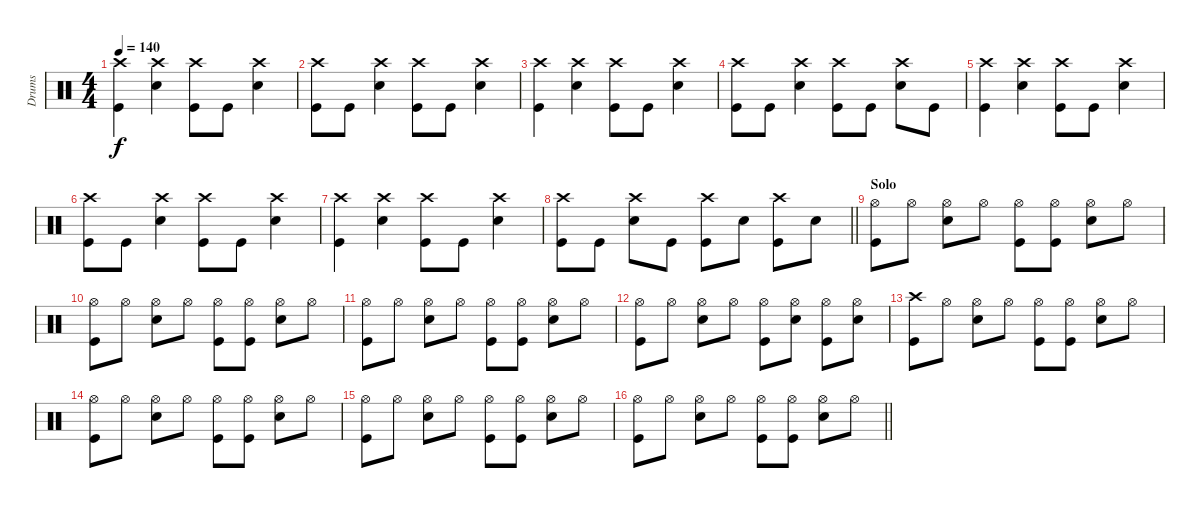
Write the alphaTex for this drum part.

\track ("Drums" "Drums") {instrument percussion}
\staff {score}
\articulation defaults
\ts (4 4)
\tempo 140
\clef neutral
\ks c
("Crash high (hit)" "Kick (hit)").4{dy f} ("Crash high (hit)" "Snare (hit) 2").4 ("Crash high (hit)" "Kick (hit)").8 "Kick (hit)".8 ("Crash high (hit)" "Snare (hit) 2").4 |
("Crash high (hit)" "Kick (hit)").8 "Kick (hit)".8 ("Crash high (hit)" "Snare (hit) 2").4 ("Crash high (hit)" "Kick (hit)").8 "Kick (hit)".8 ("Crash high (hit)" "Snare (hit) 2").4 |
("Crash high (hit)" "Kick (hit)").4 ("Crash high (hit)" "Snare (hit) 2").4 ("Crash high (hit)" "Kick (hit)").8 "Kick (hit)".8 ("Crash high (hit)" "Snare (hit) 2").4 |
("Crash high (hit)" "Kick (hit)").8 "Kick (hit)".8 ("Crash high (hit)" "Snare (hit) 2").4 ("Crash high (hit)" "Kick (hit)").8 "Kick (hit)".8 ("Crash high (hit)" "Snare (hit) 2").8 "Kick (hit)".8 |
("Crash high (hit)" "Kick (hit)").4 ("Crash high (hit)" "Snare (hit) 2").4 ("Crash high (hit)" "Kick (hit)").8 "Kick (hit)".8 ("Crash high (hit)" "Snare (hit) 2").4 |
("Crash high (hit)" "Kick (hit)").8 "Kick (hit)".8 ("Crash high (hit)" "Snare (hit) 2").4 ("Crash high (hit)" "Kick (hit)").8 "Kick (hit)".8 ("Crash high (hit)" "Snare (hit) 2").4 |
("Crash high (hit)" "Kick (hit)").4 ("Crash high (hit)" "Snare (hit) 2").4 ("Crash high (hit)" "Kick (hit)").8 "Kick (hit)".8 ("Crash high (hit)" "Snare (hit) 2").4 |
\barLineRight lightlight
("Crash high (hit)" "Kick (hit)").8 "Kick (hit)".8 ("Crash high (hit)" "Snare (hit) 2").8 "Kick (hit)".8 ("Crash high (hit)" "Kick (hit)").8 "Snare (hit) 2".8 ("Crash high (hit)" "Kick (hit)").8 "Snare (hit) 2".8 |
\section ("" "Solo")
("Hi-Hat (open)" "Kick (hit)").8 "Hi-Hat (open)".8 ("Hi-Hat (open)" "Snare (hit) 2").8 "Hi-Hat (open)".8 ("Hi-Hat (open)" "Kick (hit)").8 ("Hi-Hat (open)" "Kick (hit)").8 ("Hi-Hat (open)" "Snare (hit) 2").8 "Hi-Hat (open)".8 |
("Hi-Hat (open)" "Kick (hit)").8 "Hi-Hat (open)".8 ("Hi-Hat (open)" "Snare (hit) 2").8 "Hi-Hat (open)".8 ("Hi-Hat (open)" "Kick (hit)").8 ("Hi-Hat (open)" "Kick (hit)").8 ("Hi-Hat (open)" "Snare (hit) 2").8 "Hi-Hat (open)".8 |
("Hi-Hat (open)" "Kick (hit)").8 "Hi-Hat (open)".8 ("Hi-Hat (open)" "Snare (hit) 2").8 "Hi-Hat (open)".8 ("Hi-Hat (open)" "Kick (hit)").8 ("Hi-Hat (open)" "Kick (hit)").8 ("Hi-Hat (open)" "Snare (hit) 2").8 "Hi-Hat (open)".8 |
("Hi-Hat (open)" "Kick (hit)").8 "Hi-Hat (open)".8 ("Hi-Hat (open)" "Snare (hit) 2").8 "Hi-Hat (open)".8 ("Hi-Hat (open)" "Kick (hit)").8 ("Hi-Hat (open)" "Snare (hit) 2").8 ("Hi-Hat (open)" "Kick (hit)").8 ("Hi-Hat (open)" "Snare (hit) 2").8 |
("Crash high (hit)" "Kick (hit)").8 "Hi-Hat (open)".8 ("Hi-Hat (open)" "Snare (hit) 2").8 "Hi-Hat (open)".8 ("Hi-Hat (open)" "Kick (hit)").8 ("Hi-Hat (open)" "Kick (hit)").8 ("Hi-Hat (open)" "Snare (hit) 2").8 "Hi-Hat (open)".8 |
("Hi-Hat (open)" "Kick (hit)").8 "Hi-Hat (open)".8 ("Hi-Hat (open)" "Snare (hit) 2").8 "Hi-Hat (open)".8 ("Hi-Hat (open)" "Kick (hit)").8 ("Hi-Hat (open)" "Kick (hit)").8 ("Hi-Hat (open)" "Snare (hit) 2").8 "Hi-Hat (open)".8 |
("Hi-Hat (open)" "Kick (hit)").8 "Hi-Hat (open)".8 ("Hi-Hat (open)" "Snare (hit) 2").8 "Hi-Hat (open)".8 ("Hi-Hat (open)" "Kick (hit)").8 ("Hi-Hat (open)" "Kick (hit)").8 ("Hi-Hat (open)" "Snare (hit) 2").8 "Hi-Hat (open)".8 |
\barLineRight lightlight
("Hi-Hat (open)" "Kick (hit)").8 "Hi-Hat (open)".8 ("Hi-Hat (open)" "Snare (hit) 2").8 "Hi-Hat (open)".8 ("Hi-Hat (open)" "Kick (hit)").8 ("Hi-Hat (open)" "Kick (hit)").8 ("Hi-Hat (open)" "Snare (hit) 2").8 "Hi-Hat (open)".8
